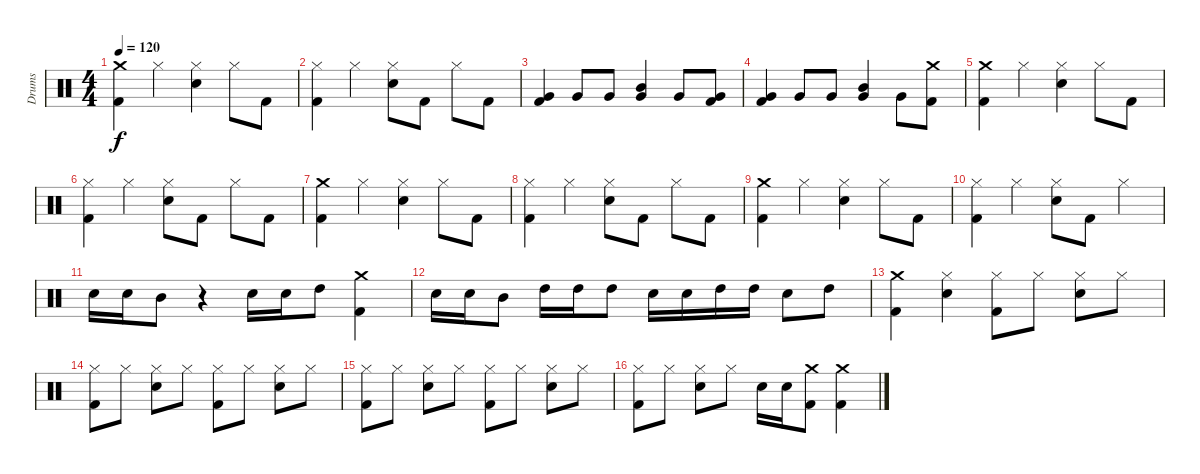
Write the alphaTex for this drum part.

\track ("Drums" "Drums") {instrument percussion}
\staff {score}
\articulation defaults
\ts (4 4)
\tempo 120
\clef neutral
\ks c
("Kick (hit) 2" "Crash medium (hit)").4{dy f} "Hi-Hat (closed)".4 ("Snare (hit) 2" "Hi-Hat (closed)").4 "Hi-Hat (closed)".8 "Kick (hit) 2".8 |
("Hi-Hat (closed)" "Kick (hit) 2").4 "Hi-Hat (closed)".4 ("Snare (hit) 2" "Hi-Hat (closed)").8 "Kick (hit) 2".8 "Hi-Hat (closed)".8 "Kick (hit) 2".8 |
("Kick (hit) 2" "Very Low Tom (hit)").4 "Very Low Tom (hit)".8 "Very Low Tom (hit)".8 ("Mid Tom (hit)" "Very Low Tom (hit)").4 "Very Low Tom (hit)".8 ("Kick (hit) 2" "Very Low Tom (hit)").8 |
("Kick (hit) 2" "Very Low Tom (hit)").4 "Very Low Tom (hit)".8 "Very Low Tom (hit)".8 ("Mid Tom (hit)" "Very Low Tom (hit)").4 "Very Low Tom (hit)".8 ("Crash medium (hit)" "Kick (hit) 2").8 |
("Crash medium (hit)" "Kick (hit) 2").4 "Hi-Hat (closed)".4 ("Snare (hit) 2" "Hi-Hat (closed)").4 "Hi-Hat (closed)".8 "Kick (hit) 2".8 |
("Hi-Hat (closed)" "Kick (hit) 2").4 "Hi-Hat (closed)".4 ("Snare (hit) 2" "Hi-Hat (closed)").8 "Kick (hit) 2".8 "Hi-Hat (closed)".8 "Kick (hit) 2".8 |
("Kick (hit) 2" "Crash medium (hit)").4 "Hi-Hat (closed)".4 ("Snare (hit) 2" "Hi-Hat (closed)").4 "Hi-Hat (closed)".8 "Kick (hit) 2".8 |
("Hi-Hat (closed)" "Kick (hit) 2").4 "Hi-Hat (closed)".4 ("Snare (hit) 2" "Hi-Hat (closed)").8 "Kick (hit) 2".8 "Hi-Hat (closed)".8 "Kick (hit) 2".8 |
("Kick (hit) 2" "Crash medium (hit)").4 "Hi-Hat (closed)".4 ("Snare (hit) 2" "Hi-Hat (closed)").4 "Hi-Hat (closed)".8 "Kick (hit) 2".8 |
("Kick (hit) 2" "Hi-Hat (closed)").4 "Hi-Hat (closed)".4 ("Snare (hit) 2" "Hi-Hat (closed)").8 "Kick (hit) 2".8 "Hi-Hat (closed)".4 |
"Snare (hit) 2".16 "Snare (hit) 2".16 "Mid Tom (hit)".8 r.4 "Snare (hit) 2".16 "Snare (hit) 2".16 "High Tom (hit)".8 ("Crash medium (hit)" "Kick (hit) 2").4 |
"Snare (hit) 2".16 "Snare (hit) 2".16 "Mid Tom (hit)".8 "High Tom (hit)".16 "High Tom (hit)".16 "High Tom (hit)".8 "Snare (hit) 2".16 "Snare (hit) 2".16 "High Tom (hit)".16 "High Tom (hit)".16 "Snare (hit) 2".8 "High Tom (hit)".8 |
("Kick (hit) 2" "Crash medium (hit)").4 ("Hi-Hat (closed)" "Snare (hit) 2").4 ("Kick (hit) 2" "Hi-Hat (closed)").8 "Hi-Hat (closed)".8 ("Snare (hit) 2" "Hi-Hat (closed)").8 "Hi-Hat (closed)".8 |
("Kick (hit) 2" "Hi-Hat (closed)").8 "Hi-Hat (closed)".8 ("Snare (hit) 2" "Hi-Hat (closed)").8 "Hi-Hat (closed)".8 ("Kick (hit) 2" "Hi-Hat (closed)").8 "Hi-Hat (closed)".8 ("Snare (hit) 2" "Hi-Hat (closed)").8 "Hi-Hat (closed)".8 |
("Kick (hit) 2" "Hi-Hat (closed)").8 "Hi-Hat (closed)".8 ("Snare (hit) 2" "Hi-Hat (closed)").8 "Hi-Hat (closed)".8 ("Kick (hit) 2" "Hi-Hat (closed)").8 "Hi-Hat (closed)".8 ("Snare (hit) 2" "Hi-Hat (closed)").8 "Hi-Hat (closed)".8 |
("Kick (hit) 2" "Hi-Hat (closed)").8 "Hi-Hat (closed)".8 ("Snare (hit) 2" "Hi-Hat (closed)").8 "Hi-Hat (closed)".8 "Snare (hit) 2".16 "Snare (hit) 2".16 ("Crash medium (hit)" "Kick (hit) 2").8 ("Crash medium (hit)" "Kick (hit) 2").4
